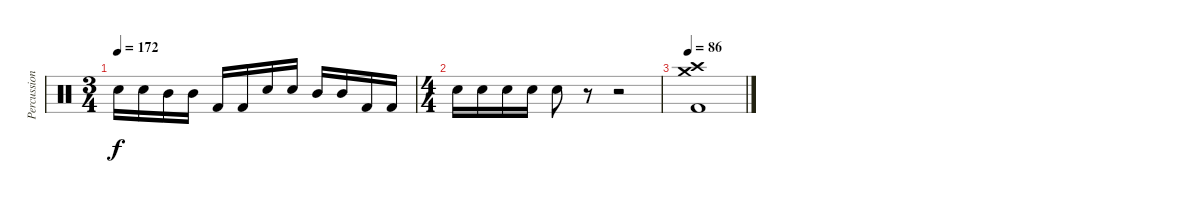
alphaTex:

\track ("Percussion" "Percussion") {instrument percussion}
\staff {score}
\articulation defaults
\ts (3 4)
\tempo 172
\clef neutral
\ks c "Electric Snare (hit)".16{dy f} "Electric Snare (hit)".16 "Mid Tom (hit)".16 "Mid Tom (hit)".16 "Kick (hit) 2".16 "Kick (hit) 2".16 "Electric Snare (hit)".16 "Electric Snare (hit)".16 "Mid Tom (hit)".16 "Mid Tom (hit)".16 "Kick (hit) 2".16 "Kick (hit) 2".16
|
\ts (4 4)
"Electric Snare (hit)".16 "Electric Snare (hit)".16 "Electric Snare (hit)".16 "Electric Snare (hit)".16 "Electric Snare (hit)".8 r.8 r.2 |
\tempo 86
("Crash high (hit)" "Crash medium (hit)" "Kick (hit) 2").1
